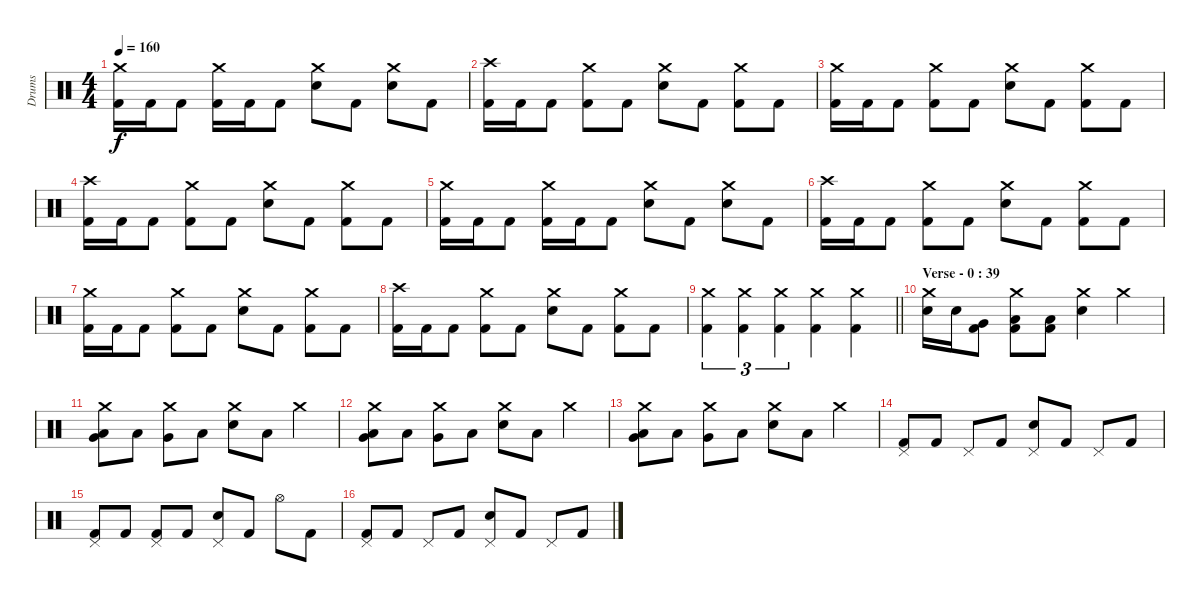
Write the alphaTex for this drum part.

\track ("Drums" "Drums") {instrument percussion}
\staff {score}
\articulation defaults
\ts (4 4)
\tempo 160
\clef neutral
\ks c
("Crash medium (hit)" "Kick (hit) 2").16{dy f} "Kick (hit) 2".16 "Kick (hit) 2".8 ("Crash medium (hit)" "Kick (hit) 2").16 "Kick (hit) 2".16 "Kick (hit) 2".8 ("Crash medium (hit)" "Snare (hit) 2").8 "Kick (hit) 2".8 ("Crash medium (hit)" "Snare (hit) 2").8 "Kick (hit) 2".8 |
("Crash high (hit)" "Kick (hit) 2").16 "Kick (hit) 2".16 "Kick (hit) 2".8 ("Crash medium (hit)" "Kick (hit) 2").8 "Kick (hit) 2".8 ("Crash medium (hit)" "Snare (hit) 2").8 "Kick (hit) 2".8 ("Crash medium (hit)" "Kick (hit) 2").8 "Kick (hit) 2".8 |
("Crash medium (hit)" "Kick (hit) 2").16 "Kick (hit) 2".16 "Kick (hit) 2".8 ("Crash medium (hit)" "Kick (hit) 2").8 "Kick (hit) 2".8 ("Crash medium (hit)" "Snare (hit) 2").8 "Kick (hit) 2".8 ("Crash medium (hit)" "Kick (hit) 2").8 "Kick (hit) 2".8 |
("Crash high (hit)" "Kick (hit) 2").16 "Kick (hit) 2".16 "Kick (hit) 2".8 ("Crash medium (hit)" "Kick (hit) 2").8 "Kick (hit) 2".8 ("Crash medium (hit)" "Snare (hit) 2").8 "Kick (hit) 2".8 ("Crash medium (hit)" "Kick (hit) 2").8 "Kick (hit) 2".8 |
("Crash medium (hit)" "Kick (hit) 2").16 "Kick (hit) 2".16 "Kick (hit) 2".8 ("Crash medium (hit)" "Kick (hit) 2").16 "Kick (hit) 2".16 "Kick (hit) 2".8 ("Crash medium (hit)" "Snare (hit) 2").8 "Kick (hit) 2".8 ("Crash medium (hit)" "Snare (hit) 2").8 "Kick (hit) 2".8 |
("Crash high (hit)" "Kick (hit) 2").16 "Kick (hit) 2".16 "Kick (hit) 2".8 ("Crash medium (hit)" "Kick (hit) 2").8 "Kick (hit) 2".8 ("Crash medium (hit)" "Snare (hit) 2").8 "Kick (hit) 2".8 ("Crash medium (hit)" "Kick (hit) 2").8 "Kick (hit) 2".8 |
("Crash medium (hit)" "Kick (hit) 2").16 "Kick (hit) 2".16 "Kick (hit) 2".8 ("Crash medium (hit)" "Kick (hit) 2").8 "Kick (hit) 2".8 ("Crash medium (hit)" "Snare (hit) 2").8 "Kick (hit) 2".8 ("Crash medium (hit)" "Kick (hit) 2").8 "Kick (hit) 2".8 |
("Crash high (hit)" "Kick (hit) 2").16 "Kick (hit) 2".16 "Kick (hit) 2".8 ("Crash medium (hit)" "Kick (hit) 2").8 "Kick (hit) 2".8 ("Crash medium (hit)" "Snare (hit) 2").8 "Kick (hit) 2".8 ("Crash medium (hit)" "Kick (hit) 2").8 "Kick (hit) 2".8 |
\barLineRight lightlight
("Crash medium (hit)" "Kick (hit) 2").4{tu (3 2)} ("Crash medium (hit)" "Kick (hit) 2").4{tu (3 2)} ("Crash medium (hit)" "Kick (hit) 2").4{tu (3 2)} ("Crash medium (hit)" "Kick (hit) 2").4 ("Crash medium (hit)" "Kick (hit) 2").4 |
\section ("" "Verse - 0 : 39")
("Crash medium (hit)" "Electric Snare (hit)").16 "Electric Snare (hit)".16 ("Very Low Tom (hit)" "Kick (hit) 2").8 ("Crash medium (hit)" "Low Floor Tom (hit)" "Kick (hit) 2").8 ("Low Floor Tom (hit)" "Kick (hit) 2").8 ("Crash medium (hit)" "Snare (hit) 2").4 "Crash medium (hit)".4 |
("Crash medium (hit)" "Low Tom (hit)" "Very Low Tom (hit)").8 "Low Tom (hit)".8 ("Crash medium (hit)" "Very Low Tom (hit)").8 "Low Floor Tom (hit)".8 ("Crash medium (hit)" "Snare (hit) 2").8 "Low Floor Tom (hit)".8 "Crash medium (hit)".4 |
("Crash medium (hit)" "Low Tom (hit)" "Very Low Tom (hit)").8 "Low Tom (hit)".8 ("Crash medium (hit)" "Very Low Tom (hit)").8 "Low Floor Tom (hit)".8 ("Crash medium (hit)" "Snare (hit) 2").8 "Low Floor Tom (hit)".8 "Crash medium (hit)".4 |
("Crash medium (hit)" "Low Tom (hit)" "Very Low Tom (hit)").8 "Low Tom (hit)".8 ("Crash medium (hit)" "Very Low Tom (hit)").8 "Low Floor Tom (hit)".8 ("Crash medium (hit)" "Snare (hit) 2").8 "Low Floor Tom (hit)".8 "Crash medium (hit)".4 |
("Pedal Hi-Hat (hit)" "Kick (hit) 2").8 "Kick (hit) 2".8 "Pedal Hi-Hat (hit)".8 "Kick (hit) 2".8 ("Pedal Hi-Hat (hit)" "Snare (hit) 2").8 "Kick (hit) 2".8 "Pedal Hi-Hat (hit)".8 "Kick (hit) 2".8 |
("Pedal Hi-Hat (hit)" "Kick (hit) 2").8 "Kick (hit) 2".8 ("Pedal Hi-Hat (hit)" "Kick (hit) 2").8 "Kick (hit) 2".8 ("Pedal Hi-Hat (hit)" "Snare (hit) 2").8 "Kick (hit) 2".8 "Hi-Hat (open)".8 "Kick (hit) 2".8 |
("Pedal Hi-Hat (hit)" "Kick (hit) 2").8 "Kick (hit) 2".8 "Pedal Hi-Hat (hit)".8 "Kick (hit) 2".8 ("Pedal Hi-Hat (hit)" "Snare (hit) 2").8 "Kick (hit) 2".8 "Pedal Hi-Hat (hit)".8 "Kick (hit) 2".8
